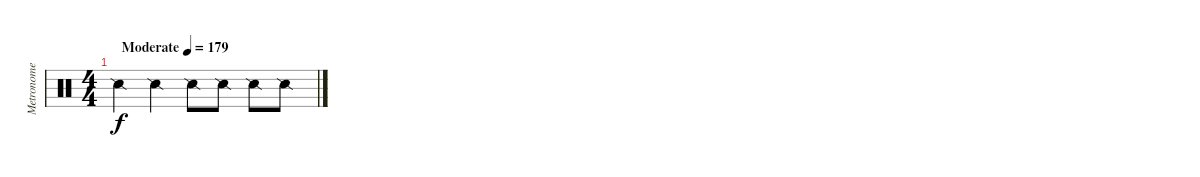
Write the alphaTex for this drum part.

\track ("Metronome" "Metronome") {instrument percussion}
\staff {score}
\articulation defaults
\ts (4 4)
\tempo (179 "Moderate")
\clef neutral
\ks c "Snare (side stick) 2".4{dy f} "Snare (side stick) 2".4 "Snare (side stick) 2".8 "Snare (side stick) 2".8 "Snare (side stick) 2".8 "Snare (side stick) 2".8
